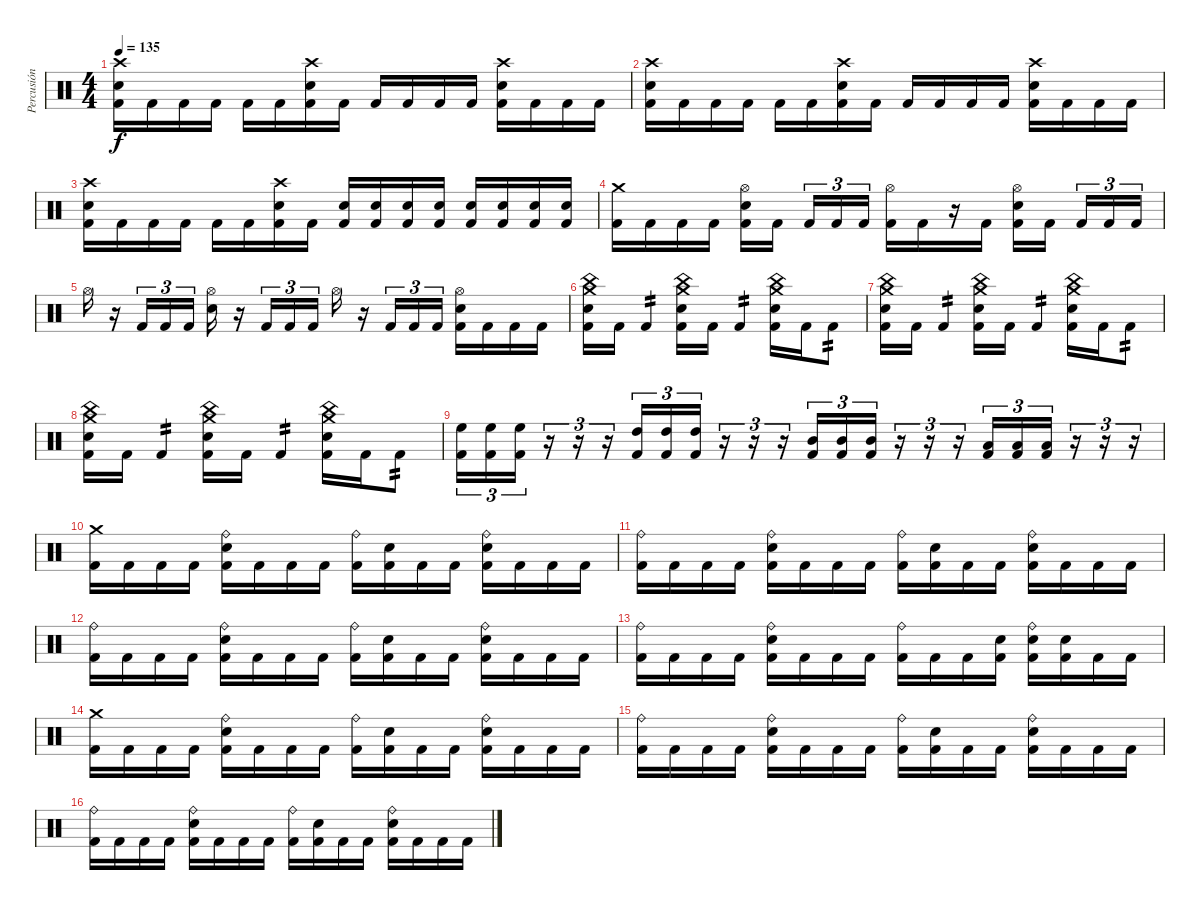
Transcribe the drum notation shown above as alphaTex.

\track ("Percusión" "Percusión") {instrument percussion}
\staff {score}
\articulation defaults
\ts (4 4)
\tempo 135
\clef neutral
\ks c
("Crash high (hit)" "Electric Snare (hit)" "Kick (hit) 2").16{dy f} "Kick (hit) 2".16 "Kick (hit) 2".16 "Kick (hit) 2".16 "Kick (hit) 2".16 "Kick (hit) 2".16 ("Crash high (hit)" "Electric Snare (hit)" "Kick (hit) 2").16 "Kick (hit) 2".16 "Kick (hit) 2".16 "Kick (hit) 2".16 "Kick (hit) 2".16 "Kick (hit) 2".16 ("Crash high (hit)" "Electric Snare (hit)" "Kick (hit) 2").16 "Kick (hit) 2".16 "Kick (hit) 2".16 "Kick (hit) 2".16 |
("Crash high (hit)" "Electric Snare (hit)" "Kick (hit) 2").16 "Kick (hit) 2".16 "Kick (hit) 2".16 "Kick (hit) 2".16 "Kick (hit) 2".16 "Kick (hit) 2".16 ("Crash high (hit)" "Electric Snare (hit)" "Kick (hit) 2").16 "Kick (hit) 2".16 "Kick (hit) 2".16 "Kick (hit) 2".16 "Kick (hit) 2".16 "Kick (hit) 2".16 ("Crash high (hit)" "Electric Snare (hit)" "Kick (hit) 2").16 "Kick (hit) 2".16 "Kick (hit) 2".16 "Kick (hit) 2".16 |
("Crash high (hit)" "Electric Snare (hit)" "Kick (hit) 2").16 "Kick (hit) 2".16 "Kick (hit) 2".16 "Kick (hit) 2".16 "Kick (hit) 2".16 "Kick (hit) 2".16 ("Crash high (hit)" "Electric Snare (hit)" "Kick (hit) 2").16 "Kick (hit) 2".16 ("Electric Snare (hit)" "Kick (hit) 2").16 ("Electric Snare (hit)" "Kick (hit) 2").16 ("Electric Snare (hit)" "Kick (hit) 2").16 ("Electric Snare (hit)" "Kick (hit) 2").16 ("Electric Snare (hit)" "Kick (hit) 2").16 ("Electric Snare (hit)" "Kick (hit) 2").16 ("Electric Snare (hit)" "Kick (hit) 2").16 ("Electric Snare (hit)" "Kick (hit) 2").16 |
("Crash medium (hit)" "Kick (hit) 2").16 "Kick (hit) 2".16 "Kick (hit) 2".16 "Kick (hit) 2".16 ("Hi-Hat (open)" "Electric Snare (hit)" "Kick (hit) 2").16 "Kick (hit) 2".16{beam splitsecondary} "Kick (hit) 2".16{tu (3 2)} "Kick (hit) 2".16{tu (3 2)} "Kick (hit) 2".16{tu (3 2)} ("Hi-Hat (open)" "Kick (hit) 2").16 "Kick (hit) 2".16 r.16 "Kick (hit) 2".16 ("Hi-Hat (open)" "Electric Snare (hit)" "Kick (hit) 2").16 "Kick (hit) 2".16{beam splitsecondary} "Kick (hit) 2".16{tu (3 2)} "Kick (hit) 2".16{tu (3 2)} "Kick (hit) 2".16{tu (3 2)} |
"Hi-Hat (open)".16 r.16 "Kick (hit) 2".16{tu (3 2)} "Kick (hit) 2".16{tu (3 2)} "Kick (hit) 2".16{tu (3 2)} ("Hi-Hat (open)" "Electric Snare (hit)").16 r.16 "Kick (hit) 2".16{tu (3 2)} "Kick (hit) 2".16{tu (3 2)} "Kick (hit) 2".16{tu (3 2)} "Hi-Hat (open)".16 r.16 "Kick (hit) 2".16{tu (3 2)} "Kick (hit) 2".16{tu (3 2)} "Kick (hit) 2".16{tu (3 2)} ("Hi-Hat (open)" "Electric Snare (hit)" "Kick (hit) 2").16 "Kick (hit) 2".16 "Kick (hit) 2".16 "Kick (hit) 2".16 |
("China (hit)" "Crash medium (hit)" "Electric Snare (hit)" "Kick (hit) 2").16 "Kick (hit) 2".16 "Kick (hit) 2".4{tp 2} ("China (hit)" "Crash medium (hit)" "Electric Snare (hit)" "Kick (hit) 2").16 "Kick (hit) 2".16 "Kick (hit) 2".4{tp 2} ("China (hit)" "Crash medium (hit)" "Electric Snare (hit)" "Kick (hit) 2").16 "Kick (hit) 2".16 "Kick (hit) 2".8{tp 2} |
("China (hit)" "Crash medium (hit)" "Electric Snare (hit)" "Kick (hit) 2").16 "Kick (hit) 2".16 "Kick (hit) 2".4{tp 2} ("China (hit)" "Crash medium (hit)" "Electric Snare (hit)" "Kick (hit) 2").16 "Kick (hit) 2".16 "Kick (hit) 2".4{tp 2} ("China (hit)" "Crash medium (hit)" "Electric Snare (hit)" "Kick (hit) 2").16 "Kick (hit) 2".16 "Kick (hit) 2".8{tp 2} |
("China (hit)" "Crash medium (hit)" "Electric Snare (hit)" "Kick (hit) 2").16 "Kick (hit) 2".16 "Kick (hit) 2".4{tp 2} ("China (hit)" "Crash medium (hit)" "Electric Snare (hit)" "Kick (hit) 2").16 "Kick (hit) 2".16 "Kick (hit) 2".4{tp 2} ("China (hit)" "Crash medium (hit)" "Electric Snare (hit)" "Kick (hit) 2").16 "Kick (hit) 2".16 "Kick (hit) 2".8{tp 2} |
("High Floor Tom (hit)" "Kick (hit) 2").16{tu (3 2)} ("High Floor Tom (hit)" "Kick (hit) 2").16{tu (3 2)} ("High Floor Tom (hit)" "Kick (hit) 2").16{tu (3 2)} r.16{tu (3 2)} r.16{tu (3 2)} r.16{tu (3 2)} ("High Tom (hit)" "Kick (hit) 2").16{tu (3 2)} ("High Tom (hit)" "Kick (hit) 2").16{tu (3 2)} ("High Tom (hit)" "Kick (hit) 2").16{tu (3 2)} r.16{tu (3 2)} r.16{tu (3 2)} r.16{tu (3 2)} ("Mid Tom (hit)" "Kick (hit) 2").16{tu (3 2)} ("Mid Tom (hit)" "Kick (hit) 2").16{tu (3 2)} ("Mid Tom (hit)" "Kick (hit) 2").16{tu (3 2)} r.16{tu (3 2)} r.16{tu (3 2)} r.16{tu (3 2)} ("Low Tom (hit)" "Kick (hit) 2").16{tu (3 2)} ("Low Tom (hit)" "Kick (hit) 2").16{tu (3 2)} ("Low Tom (hit)" "Kick (hit) 2").16{tu (3 2)} r.16{tu (3 2)} r.16{tu (3 2)} r.16{tu (3 2)} |
("Crash medium (hit)" "Kick (hit) 2").16 "Kick (hit) 2".16 "Kick (hit) 2".16 "Kick (hit) 2".16 ("Ride (bell)" "Electric Snare (hit)" "Kick (hit) 2").16 "Kick (hit) 2".16 "Kick (hit) 2".16 "Kick (hit) 2".16 ("Ride (bell)" "Kick (hit) 2").16 ("Electric Snare (hit)" "Kick (hit) 2").16 "Kick (hit) 2".16 "Kick (hit) 2".16 ("Ride (bell)" "Electric Snare (hit)" "Kick (hit) 2").16 "Kick (hit) 2".16 "Kick (hit) 2".16 "Kick (hit) 2".16 |
("Ride (bell)" "Kick (hit) 2").16 "Kick (hit) 2".16 "Kick (hit) 2".16 "Kick (hit) 2".16 ("Ride (bell)" "Electric Snare (hit)" "Kick (hit) 2").16 "Kick (hit) 2".16 "Kick (hit) 2".16 "Kick (hit) 2".16 ("Ride (bell)" "Kick (hit) 2").16 ("Electric Snare (hit)" "Kick (hit) 2").16 "Kick (hit) 2".16 "Kick (hit) 2".16 ("Ride (bell)" "Electric Snare (hit)" "Kick (hit) 2").16 "Kick (hit) 2".16 "Kick (hit) 2".16 "Kick (hit) 2".16 |
("Ride (bell)" "Kick (hit) 2").16 "Kick (hit) 2".16 "Kick (hit) 2".16 "Kick (hit) 2".16 ("Ride (bell)" "Electric Snare (hit)" "Kick (hit) 2").16 "Kick (hit) 2".16 "Kick (hit) 2".16 "Kick (hit) 2".16 ("Ride (bell)" "Kick (hit) 2").16 ("Electric Snare (hit)" "Kick (hit) 2").16 "Kick (hit) 2".16 "Kick (hit) 2".16 ("Ride (bell)" "Electric Snare (hit)" "Kick (hit) 2").16 "Kick (hit) 2".16 "Kick (hit) 2".16 "Kick (hit) 2".16 |
("Ride (bell)" "Kick (hit) 2").16 "Kick (hit) 2".16 "Kick (hit) 2".16 "Kick (hit) 2".16 ("Ride (bell)" "Electric Snare (hit)" "Kick (hit) 2").16 "Kick (hit) 2".16 "Kick (hit) 2".16 "Kick (hit) 2".16 ("Ride (bell)" "Kick (hit) 2").16 "Kick (hit) 2".16 "Kick (hit) 2".16 ("Electric Snare (hit)" "Kick (hit) 2").16 ("Ride (bell)" "Electric Snare (hit)" "Kick (hit) 2").16 ("Electric Snare (hit)" "Kick (hit) 2").16 "Kick (hit) 2".16 "Kick (hit) 2".16 |
("Crash medium (hit)" "Kick (hit) 2").16 "Kick (hit) 2".16 "Kick (hit) 2".16 "Kick (hit) 2".16 ("Ride (bell)" "Electric Snare (hit)" "Kick (hit) 2").16 "Kick (hit) 2".16 "Kick (hit) 2".16 "Kick (hit) 2".16 ("Ride (bell)" "Kick (hit) 2").16 ("Electric Snare (hit)" "Kick (hit) 2").16 "Kick (hit) 2".16 "Kick (hit) 2".16 ("Ride (bell)" "Electric Snare (hit)" "Kick (hit) 2").16 "Kick (hit) 2".16 "Kick (hit) 2".16 "Kick (hit) 2".16 |
("Ride (bell)" "Kick (hit) 2").16 "Kick (hit) 2".16 "Kick (hit) 2".16 "Kick (hit) 2".16 ("Ride (bell)" "Electric Snare (hit)" "Kick (hit) 2").16 "Kick (hit) 2".16 "Kick (hit) 2".16 "Kick (hit) 2".16 ("Ride (bell)" "Kick (hit) 2").16 ("Electric Snare (hit)" "Kick (hit) 2").16 "Kick (hit) 2".16 "Kick (hit) 2".16 ("Ride (bell)" "Electric Snare (hit)" "Kick (hit) 2").16 "Kick (hit) 2".16 "Kick (hit) 2".16 "Kick (hit) 2".16 |
("Ride (bell)" "Kick (hit) 2").16 "Kick (hit) 2".16 "Kick (hit) 2".16 "Kick (hit) 2".16 ("Ride (bell)" "Electric Snare (hit)" "Kick (hit) 2").16 "Kick (hit) 2".16 "Kick (hit) 2".16 "Kick (hit) 2".16 ("Ride (bell)" "Kick (hit) 2").16 ("Electric Snare (hit)" "Kick (hit) 2").16 "Kick (hit) 2".16 "Kick (hit) 2".16 ("Ride (bell)" "Electric Snare (hit)" "Kick (hit) 2").16 "Kick (hit) 2".16 "Kick (hit) 2".16 "Kick (hit) 2".16
